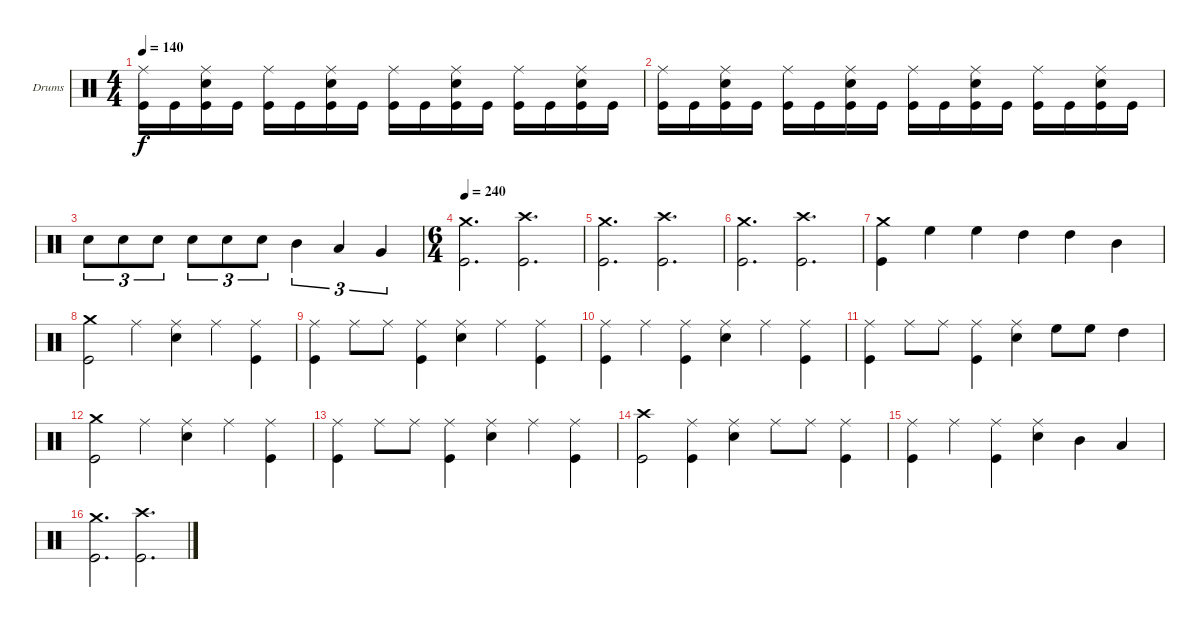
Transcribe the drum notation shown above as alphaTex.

\bracketExtendMode groupsimilarinstruments
\firstSystemTrackNameOrientation horizontal
\otherSystemsTrackNameOrientation horizontal
\track ("Дмитрий Кривенков" "Drums") {instrument percussion}
\staff {score}
\articulation defaults
\ts (4 4)
\tempo 140
\clef neutral
\ks c
("Ride (middle)" "Kick (hit)").16{dy f} "Kick (hit)".16 ("Ride (middle)" "Snare (hit) 2" "Kick (hit)").16 "Kick (hit)".16 ("Ride (middle)" "Kick (hit)").16 "Kick (hit)".16 ("Ride (middle)" "Snare (hit) 2" "Kick (hit)").16 "Kick (hit)".16 ("Ride (middle)" "Kick (hit)").16 "Kick (hit)".16 ("Ride (middle)" "Snare (hit) 2" "Kick (hit)").16 "Kick (hit)".16 ("Ride (middle)" "Kick (hit)").16 "Kick (hit)".16 ("Ride (middle)" "Snare (hit) 2" "Kick (hit)").16 "Kick (hit)".16 |
("Ride (middle)" "Kick (hit)").16 "Kick (hit)".16 ("Ride (middle)" "Snare (hit) 2" "Kick (hit)").16 "Kick (hit)".16 ("Ride (middle)" "Kick (hit)").16 "Kick (hit)".16 ("Ride (middle)" "Snare (hit) 2" "Kick (hit)").16 "Kick (hit)".16 ("Ride (middle)" "Kick (hit)").16 "Kick (hit)".16 ("Ride (middle)" "Snare (hit) 2" "Kick (hit)").16 "Kick (hit)".16 ("Ride (middle)" "Kick (hit)").16 "Kick (hit)".16 ("Ride (middle)" "Snare (hit) 2" "Kick (hit)").16 "Kick (hit)".16 |
"Snare (hit) 2".8{tu (3 2)} "Snare (hit) 2".8{tu (3 2)} "Snare (hit) 2".8{tu (3 2)} "Snare (hit) 2".8{tu (3 2)} "Snare (hit) 2".8{tu (3 2)} "Snare (hit) 2".8{tu (3 2)} "Mid Tom (hit)".4{tu (3 2)} "Low Tom (hit)".4{tu (3 2)} "Very Low Tom (hit)".4{tu (3 2)} |
\ts (6 4)
\beaming (8 6 6)
\tempo 240
("Crash medium (hit)" "Kick (hit)").2{d} ("Crash high (hit)" "Kick (hit)").2{d} |
("Crash medium (hit)" "Kick (hit)").2{d} ("Crash high (hit)" "Kick (hit)").2{d} |
("Crash medium (hit)" "Kick (hit)").2{d} ("Crash high (hit)" "Kick (hit)").2{d} |
("Crash medium (hit)" "Kick (hit)").4 "High Floor Tom (hit)".4 "High Floor Tom (hit)".4 "High Tom (hit)".4 "High Tom (hit)".4 "Mid Tom (hit)".4 |
("Crash medium (hit)" "Kick (hit)").2 "Ride (middle)".4 ("Ride (middle)" "Snare (hit) 2").4 "Ride (middle)".4 ("Ride (middle)" "Kick (hit)").4 |
("Ride (middle)" "Kick (hit)").4 "Ride (middle)".8 "Ride (middle)".8 ("Ride (middle)" "Kick (hit)").4 ("Ride (middle)" "Snare (hit) 2").4 "Ride (middle)".4 ("Ride (middle)" "Kick (hit)").4 |
("Ride (middle)" "Kick (hit)").4 "Ride (middle)".4 ("Ride (middle)" "Kick (hit)").4 ("Ride (middle)" "Snare (hit) 2").4 "Ride (middle)".4 ("Ride (middle)" "Kick (hit)").4 |
("Ride (middle)" "Kick (hit)").4 "Ride (middle)".8 "Ride (middle)".8 ("Ride (middle)" "Kick (hit)").4 ("Ride (middle)" "Snare (hit) 2").4 "High Floor Tom (hit)".8 "High Floor Tom (hit)".8 "High Tom (hit)".4 |
("Crash medium (hit)" "Kick (hit)").2 "Ride (middle)".4 ("Ride (middle)" "Snare (hit) 2").4 "Ride (middle)".4 ("Ride (middle)" "Kick (hit)").4 |
("Ride (middle)" "Kick (hit)").4 "Ride (middle)".8 "Ride (middle)".8 ("Ride (middle)" "Kick (hit)").4 ("Ride (middle)" "Snare (hit) 2").4 "Ride (middle)".4 ("Ride (middle)" "Kick (hit)").4 |
("Crash high (hit)" "Kick (hit)").2 ("Ride (middle)" "Kick (hit)").4 ("Ride (middle)" "Snare (hit) 2").4 "Ride (middle)".8 "Ride (middle)".8 ("Ride (middle)" "Kick (hit)").4 |
("Ride (middle)" "Kick (hit)").4 "Ride (middle)".4 ("Ride (middle)" "Kick (hit)").4 ("Ride (middle)" "Snare (hit) 2").4 "Mid Tom (hit)".4 "Low Tom (hit)".4 |
("Crash medium (hit)" "Kick (hit)").2{d} ("Crash high (hit)" "Kick (hit)").2{d}
